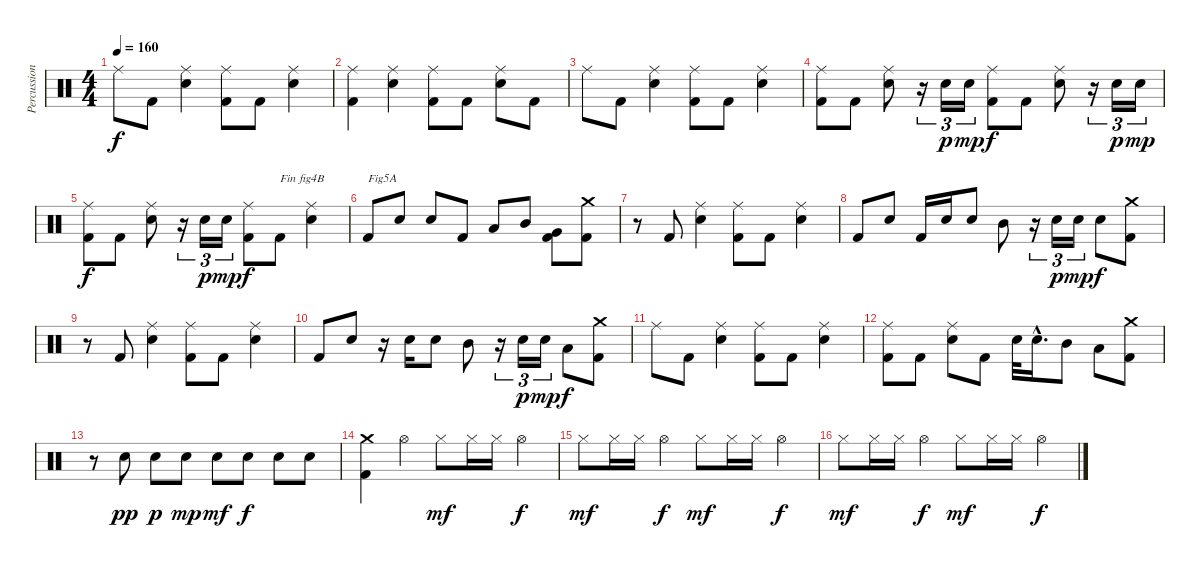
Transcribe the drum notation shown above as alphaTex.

\track ("Percussions" "Percussion") {instrument percussion}
\staff {score}
\articulation defaults
\ts (4 4)
\tempo 160
\clef neutral
\ks c "Ride (middle)".8{dy f} "Kick (hit) 2".8
("Electric Snare (hit)" "Ride (middle)").4 ("Kick (hit) 2" "Ride (middle)").8 "Kick (hit) 2".8 ("Electric Snare (hit)" "Ride (middle)").4 |
("Kick (hit) 2" "Ride (middle)").4 ("Electric Snare (hit)" "Ride (middle)").4 ("Kick (hit) 2" "Ride (middle)").8 "Kick (hit) 2".8 ("Electric Snare (hit)" "Ride (middle)").8 "Kick (hit) 2".8 |
"Ride (middle)".8 "Kick (hit) 2".8 ("Electric Snare (hit)" "Ride (middle)").4 ("Kick (hit) 2" "Ride (middle)").8 "Kick (hit) 2".8 ("Electric Snare (hit)" "Ride (middle)").4 |
("Kick (hit) 2" "Ride (middle)").8 "Kick (hit) 2".8 ("Electric Snare (hit)" "Ride (middle)").8 r.16{tu (3 2)} "Electric Snare (hit)".16{tu (3 2) dy p} "Electric Snare (hit)".16{tu (3 2) dy mp} ("Kick (hit) 2" "Ride (middle)").8{dy f} "Kick (hit) 2".8 ("Electric Snare (hit)" "Ride (middle)").8 r.16{tu (3 2)} "Electric Snare (hit)".16{tu (3 2) dy p} "Electric Snare (hit)".16{tu (3 2) dy mp} |
("Kick (hit) 2" "Ride (middle)").8{dy f} "Kick (hit) 2".8 ("Electric Snare (hit)" "Ride (middle)").8 r.16{tu (3 2)} "Electric Snare (hit)".16{tu (3 2) dy p} "Electric Snare (hit)".16{tu (3 2) dy mp} ("Kick (hit) 2" "Ride (middle)").8{dy f} "Kick (hit) 2".8{txt "Fin fig4B"} ("Electric Snare (hit)" "Ride (middle)").4 |
"Kick (hit) 2".8{txt "Fig5A"} "Electric Snare (hit)".8 "Electric Snare (hit)".8 "Kick (hit) 2".8 "Low Tom (hit)".8 "Mid Tom (hit)".8 ("Kick (hit) 2" "Very Low Tom (hit)").8 ("Kick (hit) 2" "Crash medium (hit)").8 |
r.8 "Kick (hit) 2".8 ("Electric Snare (hit)" "Ride (middle)").4 ("Kick (hit) 2" "Ride (middle)").8 "Kick (hit) 2".8 ("Electric Snare (hit)" "Ride (middle)").4 |
"Kick (hit) 2".8 "Electric Snare (hit)".8 "Kick (hit) 2".16 "Electric Snare (hit)".16 "Electric Snare (hit)".8 "Mid Tom (hit)".8 r.16{tu (3 2)} "Electric Snare (hit)".16{tu (3 2) dy p} "Electric Snare (hit)".16{tu (3 2) dy mp} "Electric Snare (hit)".8{dy f} ("Kick (hit) 2" "Crash medium (hit)").8 |
r.8 "Kick (hit) 2".8 ("Electric Snare (hit)" "Ride (middle)").4 ("Kick (hit) 2" "Ride (middle)").8 "Kick (hit) 2".8 ("Electric Snare (hit)" "Ride (middle)").4 |
"Kick (hit) 2".8 "Electric Snare (hit)".8 r.16 "Electric Snare (hit)".16 "Electric Snare (hit)".8 "Mid Tom (hit)".8 r.16{tu (3 2)} "Electric Snare (hit)".16{tu (3 2) dy p} "Electric Snare (hit)".16{tu (3 2) dy mp} "Low Tom (hit)".8{dy f} ("Kick (hit) 2" "Crash medium (hit)").8 |
"Ride (middle)".8 "Kick (hit) 2".8 ("Electric Snare (hit)" "Ride (middle)").4 ("Kick (hit) 2" "Ride (middle)").8 "Kick (hit) 2".8 ("Electric Snare (hit)" "Ride (middle)").4 |
("Kick (hit) 2" "Ride (middle)").8 "Kick (hit) 2".8 ("Electric Snare (hit)" "Ride (middle)").8 "Kick (hit) 2".8 "Electric Snare (hit)".32 "Electric Snare (hit)"{hac}.16{d} "Mid Tom (hit)".8 "Low Tom (hit)".8 ("Kick (hit) 2" "Crash medium (hit)").8 |
r.8 "Electric Snare (hit)".8{dy pp} "Electric Snare (hit)".8{dy p} "Electric Snare (hit)".8{dy mp} "Electric Snare (hit)".8{dy mf} "Electric Snare (hit)".8{dy f} "Electric Snare (hit)".8 "Electric Snare (hit)".8 |
("Kick (hit) 2" "Crash medium (hit)").4 "Hi-Hat (open)".4 "Hi-Hat (closed)".8{dy mf} "Hi-Hat (closed)".16 "Hi-Hat (closed)".16 "Hi-Hat (open)".4{dy f} |
"Hi-Hat (closed)".8{dy mf} "Hi-Hat (closed)".16 "Hi-Hat (closed)".16 "Hi-Hat (open)".4{dy f} "Hi-Hat (closed)".8{dy mf} "Hi-Hat (closed)".16 "Hi-Hat (closed)".16 "Hi-Hat (open)".4{dy f} |
"Hi-Hat (closed)".8{dy mf} "Hi-Hat (closed)".16 "Hi-Hat (closed)".16 "Hi-Hat (open)".4{dy f} "Hi-Hat (closed)".8{dy mf} "Hi-Hat (closed)".16 "Hi-Hat (closed)".16 "Hi-Hat (open)".4{dy f}
